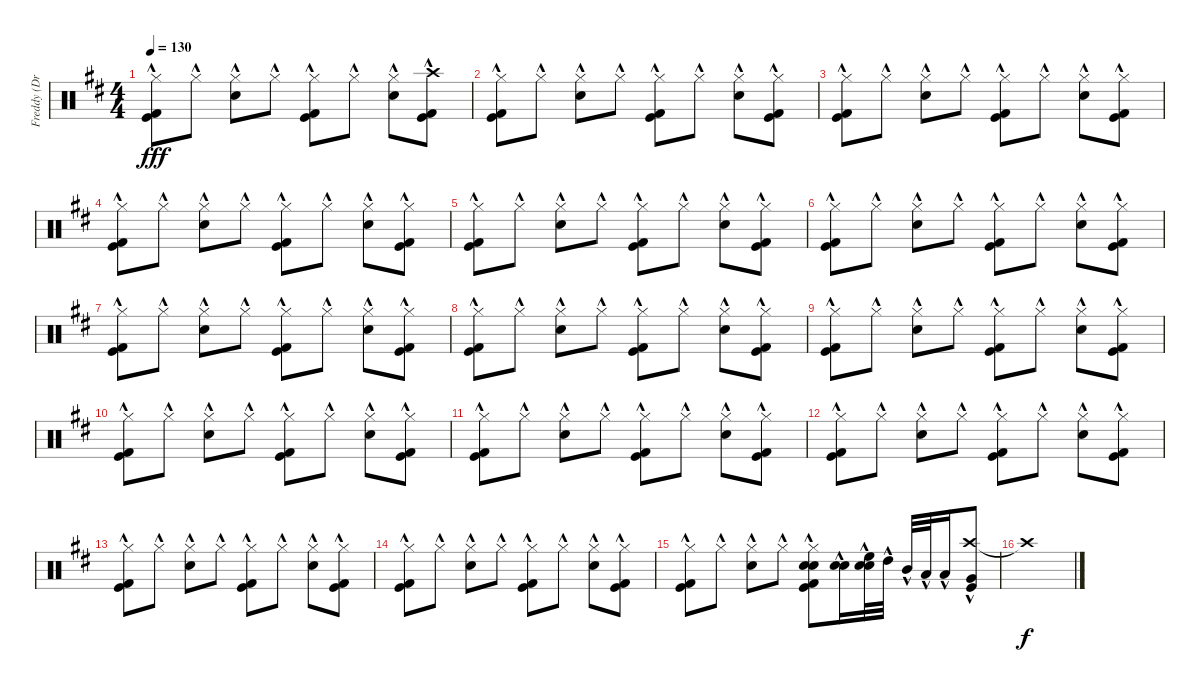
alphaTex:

\track ("Freddy (Drums)" "Freddy (Dr") {instrument percussion}
\staff {score}
\articulation defaults
\ts (4 4)
\tempo 130
\clef neutral
\ks d
("Hi-Hat (closed)"{hac} "Kick (hit)"{hac} "Kick (hit) 2"{hac}).8{dy fff} "Hi-Hat (closed)"{hac}.8 ("Hi-Hat (closed)"{hac} "Snare (hit) 2"{hac}).8 "Hi-Hat (closed)"{hac}.8 ("Hi-Hat (closed)"{hac} "Kick (hit)"{hac} "Kick (hit) 2"{hac}).8 "Hi-Hat (closed)"{hac}.8 ("Hi-Hat (closed)"{hac} "Snare (hit) 2"{hac}).8 ("Crash high (hit)"{hac} "Kick (hit)"{hac} "Kick (hit) 2"{hac}).8 |
("Hi-Hat (closed)"{hac} "Kick (hit)"{hac} "Kick (hit) 2"{hac}).8 "Hi-Hat (closed)"{hac}.8 ("Hi-Hat (closed)"{hac} "Snare (hit) 2"{hac}).8 "Hi-Hat (closed)"{hac}.8 ("Hi-Hat (closed)"{hac} "Kick (hit)"{hac} "Kick (hit) 2"{hac}).8 "Hi-Hat (closed)"{hac}.8 ("Hi-Hat (closed)"{hac} "Snare (hit) 2"{hac}).8 ("Hi-Hat (closed)"{hac} "Kick (hit)"{hac} "Kick (hit) 2"{hac}).8 |
("Hi-Hat (closed)"{hac} "Kick (hit)"{hac} "Kick (hit) 2"{hac}).8 "Hi-Hat (closed)"{hac}.8 ("Hi-Hat (closed)"{hac} "Snare (hit) 2"{hac}).8 "Hi-Hat (closed)"{hac}.8 ("Hi-Hat (closed)"{hac} "Kick (hit)"{hac} "Kick (hit) 2"{hac}).8 "Hi-Hat (closed)"{hac}.8 ("Hi-Hat (closed)"{hac} "Snare (hit) 2"{hac}).8 ("Hi-Hat (closed)"{hac} "Kick (hit)"{hac} "Kick (hit) 2"{hac}).8 |
("Hi-Hat (closed)"{hac} "Kick (hit)"{hac} "Kick (hit) 2"{hac}).8 "Hi-Hat (closed)"{hac}.8 ("Hi-Hat (closed)"{hac} "Snare (hit) 2"{hac}).8 "Hi-Hat (closed)"{hac}.8 ("Hi-Hat (closed)"{hac} "Kick (hit)"{hac} "Kick (hit) 2"{hac}).8 "Hi-Hat (closed)"{hac}.8 ("Hi-Hat (closed)"{hac} "Snare (hit) 2"{hac}).8 ("Hi-Hat (closed)"{hac} "Kick (hit)"{hac} "Kick (hit) 2"{hac}).8 |
("Hi-Hat (closed)"{hac} "Kick (hit)"{hac} "Kick (hit) 2"{hac}).8 "Hi-Hat (closed)"{hac}.8 ("Hi-Hat (closed)"{hac} "Snare (hit) 2"{hac}).8 "Hi-Hat (closed)"{hac}.8 ("Hi-Hat (closed)"{hac} "Kick (hit)"{hac} "Kick (hit) 2"{hac}).8 "Hi-Hat (closed)"{hac}.8 ("Hi-Hat (closed)"{hac} "Snare (hit) 2"{hac}).8 ("Hi-Hat (closed)"{hac} "Kick (hit)"{hac} "Kick (hit) 2"{hac}).8 |
("Hi-Hat (closed)"{hac} "Kick (hit)"{hac} "Kick (hit) 2"{hac}).8 "Hi-Hat (closed)"{hac}.8 ("Hi-Hat (closed)"{hac} "Snare (hit) 2"{hac}).8 "Hi-Hat (closed)"{hac}.8 ("Hi-Hat (closed)"{hac} "Kick (hit)"{hac} "Kick (hit) 2"{hac}).8 "Hi-Hat (closed)"{hac}.8 ("Hi-Hat (closed)"{hac} "Snare (hit) 2"{hac}).8 ("Hi-Hat (closed)"{hac} "Kick (hit)"{hac} "Kick (hit) 2"{hac}).8 |
("Hi-Hat (closed)"{hac} "Kick (hit)"{hac} "Kick (hit) 2"{hac}).8 "Hi-Hat (closed)"{hac}.8 ("Hi-Hat (closed)"{hac} "Snare (hit) 2"{hac}).8 "Hi-Hat (closed)"{hac}.8 ("Hi-Hat (closed)"{hac} "Kick (hit)"{hac} "Kick (hit) 2"{hac}).8 "Hi-Hat (closed)"{hac}.8 ("Hi-Hat (closed)"{hac} "Snare (hit) 2"{hac}).8 ("Hi-Hat (closed)"{hac} "Kick (hit)"{hac} "Kick (hit) 2"{hac}).8 |
("Hi-Hat (closed)"{hac} "Kick (hit)"{hac} "Kick (hit) 2"{hac}).8 "Hi-Hat (closed)"{hac}.8 ("Hi-Hat (closed)"{hac} "Snare (hit) 2"{hac}).8 "Hi-Hat (closed)"{hac}.8 ("Hi-Hat (closed)"{hac} "Kick (hit)"{hac} "Kick (hit) 2"{hac}).8 "Hi-Hat (closed)"{hac}.8 ("Hi-Hat (closed)"{hac} "Snare (hit) 2"{hac}).8 ("Hi-Hat (closed)"{hac} "Kick (hit)"{hac} "Kick (hit) 2"{hac}).8 |
("Hi-Hat (closed)"{hac} "Kick (hit)"{hac} "Kick (hit) 2"{hac}).8 "Hi-Hat (closed)"{hac}.8 ("Hi-Hat (closed)"{hac} "Snare (hit) 2"{hac}).8 "Hi-Hat (closed)"{hac}.8 ("Hi-Hat (closed)"{hac} "Kick (hit)"{hac} "Kick (hit) 2"{hac}).8 "Hi-Hat (closed)"{hac}.8 ("Hi-Hat (closed)"{hac} "Snare (hit) 2"{hac}).8 ("Hi-Hat (closed)"{hac} "Kick (hit)"{hac} "Kick (hit) 2"{hac}).8 |
("Hi-Hat (closed)"{hac} "Kick (hit)"{hac} "Kick (hit) 2"{hac}).8 "Hi-Hat (closed)"{hac}.8 ("Hi-Hat (closed)"{hac} "Snare (hit) 2"{hac}).8 "Hi-Hat (closed)"{hac}.8 ("Hi-Hat (closed)"{hac} "Kick (hit)"{hac} "Kick (hit) 2"{hac}).8 "Hi-Hat (closed)"{hac}.8 ("Hi-Hat (closed)"{hac} "Snare (hit) 2"{hac}).8 ("Hi-Hat (closed)"{hac} "Kick (hit)"{hac} "Kick (hit) 2"{hac}).8 |
("Hi-Hat (closed)"{hac} "Kick (hit)"{hac} "Kick (hit) 2"{hac}).8 "Hi-Hat (closed)"{hac}.8 ("Hi-Hat (closed)"{hac} "Snare (hit) 2"{hac}).8 "Hi-Hat (closed)"{hac}.8 ("Hi-Hat (closed)"{hac} "Kick (hit)"{hac} "Kick (hit) 2"{hac}).8 "Hi-Hat (closed)"{hac}.8 ("Hi-Hat (closed)"{hac} "Snare (hit) 2"{hac}).8 ("Hi-Hat (closed)"{hac} "Kick (hit)"{hac} "Kick (hit) 2"{hac}).8 |
("Hi-Hat (closed)"{hac} "Kick (hit)"{hac} "Kick (hit) 2"{hac}).8 "Hi-Hat (closed)"{hac}.8 ("Hi-Hat (closed)"{hac} "Snare (hit) 2"{hac}).8 "Hi-Hat (closed)"{hac}.8 ("Hi-Hat (closed)"{hac} "Kick (hit)"{hac} "Kick (hit) 2"{hac}).8 "Hi-Hat (closed)"{hac}.8 ("Hi-Hat (closed)"{hac} "Snare (hit) 2"{hac}).8 ("Hi-Hat (closed)"{hac} "Kick (hit)"{hac} "Kick (hit) 2"{hac}).8 |
("Hi-Hat (closed)"{hac} "Kick (hit)"{hac} "Kick (hit) 2"{hac}).8 "Hi-Hat (closed)"{hac}.8 ("Hi-Hat (closed)"{hac} "Snare (hit) 2"{hac}).8 "Hi-Hat (closed)"{hac}.8 ("Hi-Hat (closed)"{hac} "Kick (hit)"{hac} "Kick (hit) 2"{hac}).8 "Hi-Hat (closed)"{hac}.8 ("Hi-Hat (closed)"{hac} "Snare (hit) 2"{hac}).8 ("Hi-Hat (closed)"{hac} "Kick (hit)"{hac} "Kick (hit) 2"{hac}).8 |
("Hi-Hat (closed)"{hac} "Kick (hit)"{hac} "Kick (hit) 2"{hac}).8 "Hi-Hat (closed)"{hac}.8 ("Hi-Hat (closed)"{hac} "Snare (hit) 2"{hac}).8 "Hi-Hat (closed)"{hac}.8 ("Hi-Hat (closed)"{hac} "Kick (hit)"{hac} "Kick (hit) 2"{hac}).8 "Hi-Hat (closed)"{hac}.8 ("Hi-Hat (closed)"{hac} "Snare (hit) 2"{hac}).8 ("Hi-Hat (closed)"{hac} "Kick (hit)"{hac} "Kick (hit) 2"{hac}).8 |
("Hi-Hat (closed)"{hac} "Kick (hit)"{hac} "Kick (hit) 2"{hac}).8 "Hi-Hat (closed)"{hac}.8 ("Hi-Hat (closed)"{hac} "Snare (hit) 2"{hac}).8 "Hi-Hat (closed)"{hac}.8 ("Electric Snare (hit)"{hac} "Snare (hit) 2"{hac} "Hi-Hat (closed)"{hac} "Kick (hit)"{hac} "Kick (hit) 2"{hac}).8 ("Electric Snare (hit)"{hac} "Snare (hit) 2"{hac}).16 ("High Floor Tom (hit)"{hac} "Electric Snare (hit)"{hac} "Snare (hit) 2"{hac}).32 "High Tom (hit)"{hac}.32 "Mid Tom (hit)"{hac}.32 "Low Tom (hit)"{hac}.32 "Low Tom (hit)"{hac}.16 ("Crash high (hit)"{hac} "Very Low Tom (hit)"{hac} "Kick (hit)"{hac}).8 |
"Crash high (hit)"{t}.1{dy f}
